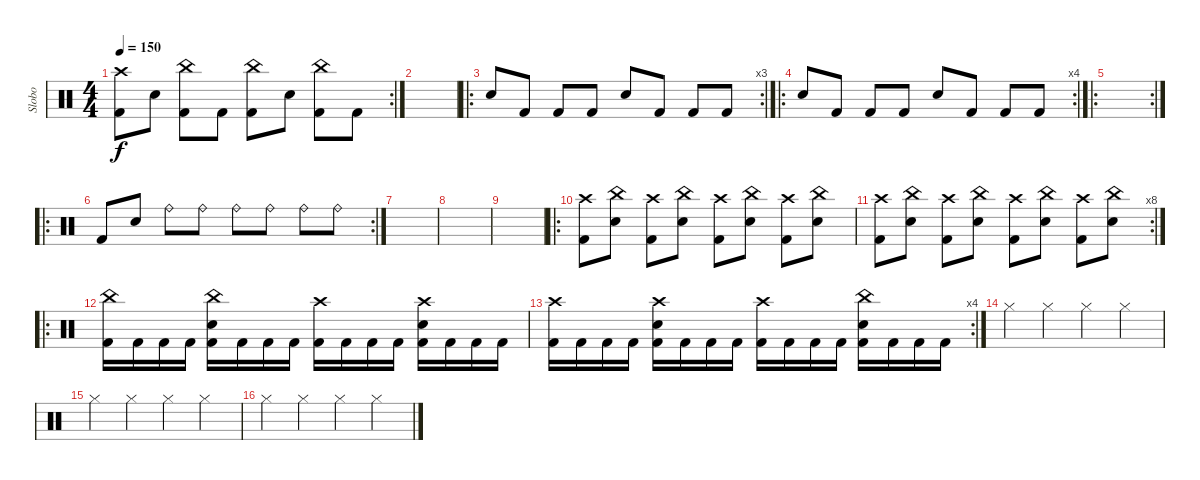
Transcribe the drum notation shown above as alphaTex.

\track ("Slobo" "Slobo") {instrument percussion}
\staff {score}
\articulation defaults
\rc 2
\ts (4 4)
\tempo 150
\clef neutral
\ks c
("Crash high (hit)" "Kick (hit) 2").8{dy f} "Snare (hit) 2".8 ("China (hit)" "Kick (hit) 2").8 "Kick (hit) 2".8 ("China (hit)" "Kick (hit) 2").8 "Snare (hit) 2".8 ("China (hit)" "Kick (hit) 2").8 "Kick (hit) 2".8 |
|
\ro
\rc 3 "Snare (hit) 2".8 "Kick (hit) 2".8 "Kick (hit) 2".8 "Kick (hit) 2".8 "Snare (hit) 2".8 "Kick (hit) 2".8 "Kick (hit) 2".8 "Kick (hit) 2".8
|
\ro
\rc 4 "Snare (hit) 2".8 "Kick (hit) 2".8 "Kick (hit) 2".8 "Kick (hit) 2".8 "Snare (hit) 2".8 "Kick (hit) 2".8 "Kick (hit) 2".8 "Kick (hit) 2".8
|
\ro
\rc 2
|
\ro
\rc 2 "Kick (hit) 2".8 "Snare (hit) 2".8 "Ride (bell)".8 "Ride (bell)".8 "Ride (bell)".8 "Ride (bell)".8 "Ride (bell)".8 "Ride (bell)".8
|
|
|
|
\ro
("Crash high (hit)" "Kick (hit) 2").8 ("China (hit)" "Snare (hit) 2").8 ("Crash high (hit)" "Kick (hit) 2").8 ("China (hit)" "Snare (hit) 2").8 ("Crash high (hit)" "Kick (hit) 2").8 ("China (hit)" "Snare (hit) 2").8 ("Crash high (hit)" "Kick (hit) 2").8 ("China (hit)" "Snare (hit) 2").8 |
\rc 8
("Crash high (hit)" "Kick (hit) 2").8 ("China (hit)" "Snare (hit) 2").8 ("Crash high (hit)" "Kick (hit) 2").8 ("China (hit)" "Snare (hit) 2").8 ("Crash high (hit)" "Kick (hit) 2").8 ("China (hit)" "Snare (hit) 2").8 ("Crash high (hit)" "Kick (hit) 2").8 ("China (hit)" "Snare (hit) 2").8 |
\ro
("China (hit)" "Kick (hit) 2").16 "Kick (hit) 2".16 "Kick (hit) 2".16 "Kick (hit) 2".16 ("China (hit)" "Snare (hit) 2" "Kick (hit) 2").16 "Kick (hit) 2".16 "Kick (hit) 2".16 "Kick (hit) 2".16 ("Crash high (hit)" "Kick (hit) 2").16 "Kick (hit) 2".16 "Kick (hit) 2".16 "Kick (hit) 2".16 ("Crash high (hit)" "Snare (hit) 2" "Kick (hit) 2").16 "Kick (hit) 2".16 "Kick (hit) 2".16 "Kick (hit) 2".16 |
\rc 4
("Crash high (hit)" "Kick (hit) 2").16 "Kick (hit) 2".16 "Kick (hit) 2".16 "Kick (hit) 2".16 ("Crash high (hit)" "Snare (hit) 2" "Kick (hit) 2").16 "Kick (hit) 2".16 "Kick (hit) 2".16 "Kick (hit) 2".16 ("Crash high (hit)" "Kick (hit) 2").16 "Kick (hit) 2".16 "Kick (hit) 2".16 "Kick (hit) 2".16 ("China (hit)" "Snare (hit) 2" "Kick (hit) 2").16 "Kick (hit) 2".16 "Kick (hit) 2".16 "Kick (hit) 2".16 |
"Hi-Hat (closed)".4 "Hi-Hat (closed)".4 "Hi-Hat (closed)".4 "Hi-Hat (closed)".4 |
"Hi-Hat (closed)".4 "Hi-Hat (closed)".4 "Hi-Hat (closed)".4 "Hi-Hat (closed)".4 |
"Hi-Hat (closed)".4 "Hi-Hat (closed)".4 "Hi-Hat (closed)".4 "Hi-Hat (closed)".4
